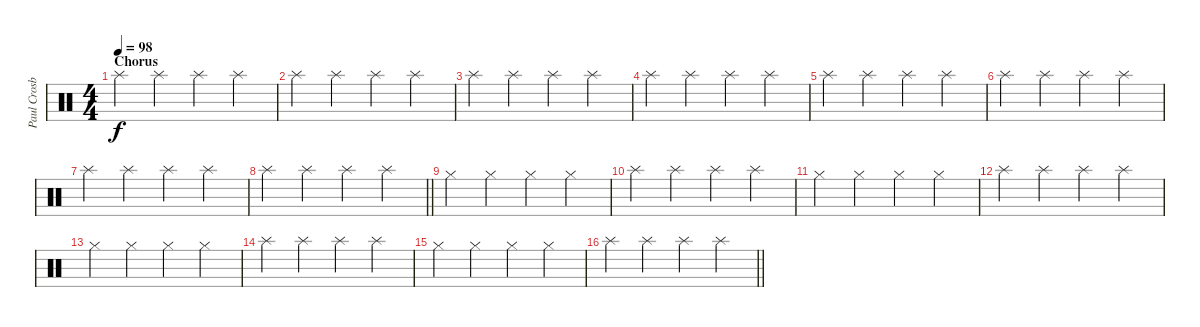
\track ("Paul Crosby (Drums)" "Paul Crosb") {instrument percussion}
\staff {score}
\articulation defaults
\ts (4 4)
\section ("" "Chorus")
\tempo 98
\clef neutral
\ks c "Splash (hit)".4{dy f} "Splash (hit)".4 "Splash (hit)".4 "Splash (hit)".4
|
"Splash (hit)".4 "Splash (hit)".4 "Splash (hit)".4 "Splash (hit)".4 |
"Splash (hit)".4 "Splash (hit)".4 "Splash (hit)".4 "Splash (hit)".4 |
"Splash (hit)".4 "Splash (hit)".4 "Splash (hit)".4 "Splash (hit)".4 |
"Splash (hit)".4 "Splash (hit)".4 "Splash (hit)".4 "Splash (hit)".4 |
"Splash (hit)".4 "Splash (hit)".4 "Splash (hit)".4 "Splash (hit)".4 |
"Splash (hit)".4 "Splash (hit)".4 "Splash (hit)".4 "Splash (hit)".4 |
\barLineRight lightlight "Splash (hit)".4 "Splash (hit)".4 "Splash (hit)".4 "Splash (hit)".4
|
"Hi-Hat (closed)".4 "Hi-Hat (closed)".4 "Hi-Hat (closed)".4 "Hi-Hat (closed)".4 |
"Splash (hit)".4 "Splash (hit)".4 "Splash (hit)".4 "Splash (hit)".4 |
"Hi-Hat (closed)".4 "Hi-Hat (closed)".4 "Hi-Hat (closed)".4 "Hi-Hat (closed)".4 |
"Splash (hit)".4 "Splash (hit)".4 "Splash (hit)".4 "Splash (hit)".4 |
"Hi-Hat (closed)".4 "Hi-Hat (closed)".4 "Hi-Hat (closed)".4 "Hi-Hat (closed)".4 |
"Splash (hit)".4 "Splash (hit)".4 "Splash (hit)".4 "Splash (hit)".4 |
"Hi-Hat (closed)".4 "Hi-Hat (closed)".4 "Hi-Hat (closed)".4 "Hi-Hat (closed)".4 |
\barLineRight lightlight "Splash (hit)".4 "Splash (hit)".4 "Splash (hit)".4 "Splash (hit)".4
